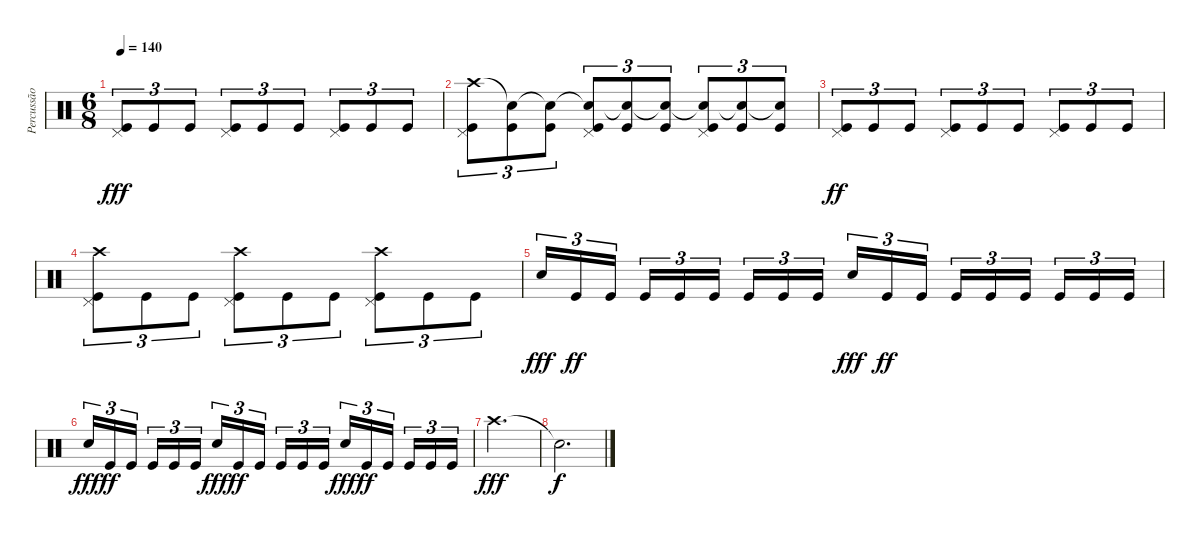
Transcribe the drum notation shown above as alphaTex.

\track ("Percussão" "Percussão") {instrument percussion}
\staff {score}
\articulation defaults
\ts (6 8)
\tempo 140
\clef neutral
\ks c
("Pedal Hi-Hat (hit)" "Kick (hit)").8{tu (3 2) dy fff} "Kick (hit)".8{tu (3 2)} "Kick (hit)".8{tu (3 2)} ("Pedal Hi-Hat (hit)" "Kick (hit)").8{tu (3 2)} "Kick (hit)".8{tu (3 2)} "Kick (hit)".8{tu (3 2)} ("Pedal Hi-Hat (hit)" "Kick (hit)").8{tu (3 2)} "Kick (hit)".8{tu (3 2)} "Kick (hit)".8{tu (3 2)} |
("Crash high (hit)" "Pedal Hi-Hat (hit)" "Kick (hit)").8{tu (3 2)} ("Snare (hit)"{t} "Kick (hit)").8{tu (3 2)} ("Snare (hit)"{t} "Kick (hit)").8{tu (3 2)} ("Snare (hit)"{t} "Pedal Hi-Hat (hit)" "Kick (hit)").8{tu (3 2)} ("Snare (hit)"{t} "Kick (hit)").8{tu (3 2)} ("Snare (hit)"{t} "Kick (hit)").8{tu (3 2)} ("Snare (hit)"{t} "Pedal Hi-Hat (hit)" "Kick (hit)").8{tu (3 2)} ("Snare (hit)"{t} "Kick (hit)").8{tu (3 2)} ("Snare (hit)"{t} "Kick (hit)").8{tu (3 2)} |
("Pedal Hi-Hat (hit)" "Kick (hit)").8{tu (3 2) dy ff} "Kick (hit)".8{tu (3 2)} "Kick (hit)".8{tu (3 2)} ("Pedal Hi-Hat (hit)" "Kick (hit)").8{tu (3 2)} "Kick (hit)".8{tu (3 2)} "Kick (hit)".8{tu (3 2)} ("Pedal Hi-Hat (hit)" "Kick (hit)").8{tu (3 2)} "Kick (hit)".8{tu (3 2)} "Kick (hit)".8{tu (3 2)} |
("Crash high (hit)" "Pedal Hi-Hat (hit)" "Kick (hit)").8{tu (3 2)} "Kick (hit)".8{tu (3 2)} "Kick (hit)".8{tu (3 2)} ("Crash high (hit)" "Pedal Hi-Hat (hit)" "Kick (hit)").8{tu (3 2)} "Kick (hit)".8{tu (3 2)} "Kick (hit)".8{tu (3 2)} ("Crash high (hit)" "Pedal Hi-Hat (hit)" "Kick (hit)").8{tu (3 2)} "Kick (hit)".8{tu (3 2)} "Kick (hit)".8{tu (3 2)} |
"Snare (hit) 2".16{tu (3 2) dy fff} "Kick (hit)".16{tu (3 2) dy ff} "Kick (hit)".16{tu (3 2) beam splitsecondary} "Kick (hit)".16{tu (3 2)} "Kick (hit)".16{tu (3 2)} "Kick (hit)".16{tu (3 2) beam splitsecondary} "Kick (hit)".16{tu (3 2)} "Kick (hit)".16{tu (3 2)} "Kick (hit)".16{tu (3 2)} "Snare (hit) 2".16{tu (3 2) dy fff} "Kick (hit)".16{tu (3 2) dy ff} "Kick (hit)".16{tu (3 2) beam splitsecondary} "Kick (hit)".16{tu (3 2)} "Kick (hit)".16{tu (3 2)} "Kick (hit)".16{tu (3 2) beam splitsecondary} "Kick (hit)".16{tu (3 2)} "Kick (hit)".16{tu (3 2)} "Kick (hit)".16{tu (3 2)} |
"Snare (hit) 2".16{tu (3 2) dy fff} "Kick (hit)".16{tu (3 2) dy ff} "Kick (hit)".16{tu (3 2) beam splitsecondary} "Kick (hit)".16{tu (3 2)} "Kick (hit)".16{tu (3 2)} "Kick (hit)".16{tu (3 2) beam splitsecondary} "Snare (hit) 2".16{tu (3 2) dy fff} "Kick (hit)".16{tu (3 2) dy ff} "Kick (hit)".16{tu (3 2)} "Kick (hit)".16{tu (3 2)} "Kick (hit)".16{tu (3 2)} "Kick (hit)".16{tu (3 2) beam splitsecondary} "Snare (hit) 2".16{tu (3 2) dy fff} "Kick (hit)".16{tu (3 2) dy ff} "Kick (hit)".16{tu (3 2) beam splitsecondary} "Kick (hit)".16{tu (3 2)} "Kick (hit)".16{tu (3 2)} "Kick (hit)".16{tu (3 2)} |
"Crash high (hit)".2{d dy fff} |
"Snare (hit)"{t}.2{d dy f}
